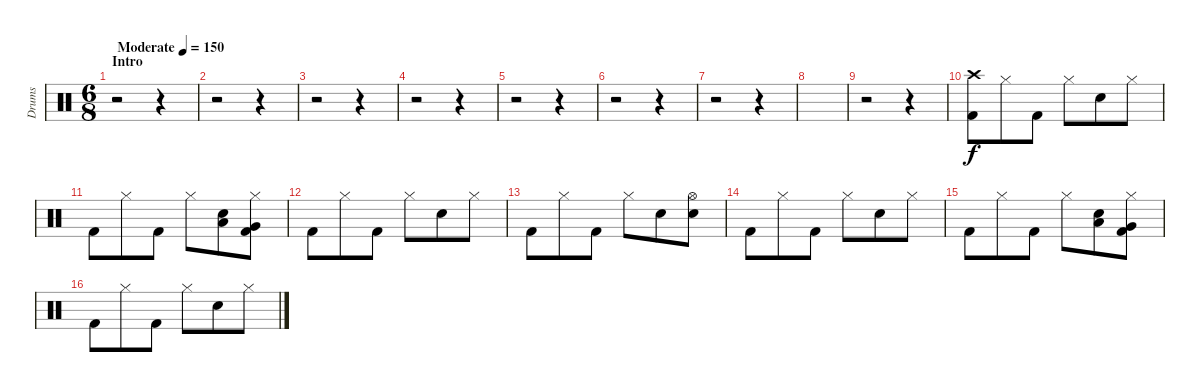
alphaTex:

\track ("Drums" "Drums") {mute instrument percussion}
\staff {score}
\articulation defaults
\ts (6 8)
\section ("" "Intro")
\tempo (150 "Moderate")
\clef neutral
\ks c
r.2{dy f} r.4 |
r.2 r.4 |
r.2 r.4 |
r.2 r.4 |
r.2 r.4 |
r.2 r.4 |
r.2 r.4 |
|
r.2 r.4 |
("Crash high (hit)" "Kick (hit) 2").8 "Hi-Hat (closed)".8 "Kick (hit) 2".8 "Hi-Hat (closed)".8 "Electric Snare (hit)".8 "Hi-Hat (closed)".8 |
"Kick (hit) 2".8 "Hi-Hat (closed)".8 "Kick (hit) 2".8 "Hi-Hat (closed)".8 ("Low Tom (hit)" "Electric Snare (hit)").8 ("Very Low Tom (hit)" "Hi-Hat (closed)" "Kick (hit) 2").8 |
"Kick (hit) 2".8 "Hi-Hat (closed)".8 "Kick (hit) 2".8 "Hi-Hat (closed)".8 "Electric Snare (hit)".8 "Hi-Hat (closed)".8 |
"Kick (hit) 2".8 "Hi-Hat (closed)".8 "Kick (hit) 2".8 "Hi-Hat (closed)".8 "Electric Snare (hit)".8 ("Hi-Hat (open)" "Electric Snare (hit)").8 |
"Kick (hit) 2".8 "Hi-Hat (closed)".8 "Kick (hit) 2".8 "Hi-Hat (closed)".8 "Electric Snare (hit)".8 "Hi-Hat (closed)".8 |
"Kick (hit) 2".8 "Hi-Hat (closed)".8 "Kick (hit) 2".8 "Hi-Hat (closed)".8 ("Low Tom (hit)" "Electric Snare (hit)").8 ("Very Low Tom (hit)" "Hi-Hat (closed)" "Kick (hit) 2").8 |
"Kick (hit) 2".8 "Hi-Hat (closed)".8 "Kick (hit) 2".8 "Hi-Hat (closed)".8 "Electric Snare (hit)".8 "Hi-Hat (closed)".8
